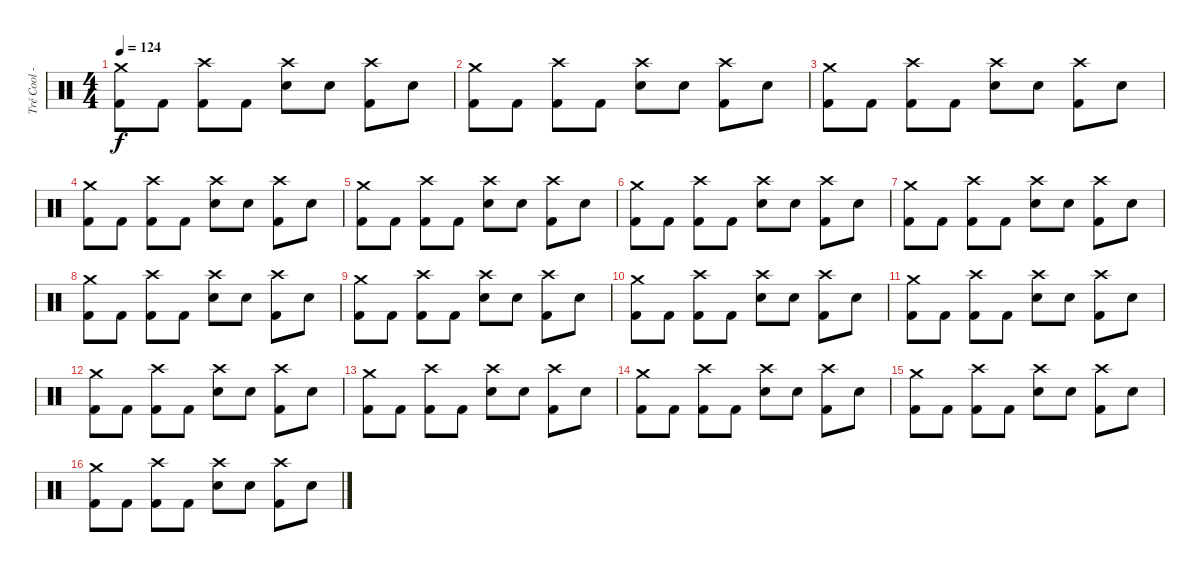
\track ("Tré Cool - Drums" "Tré Cool -") {instrument percussion}
\staff {score}
\articulation defaults
\ts (4 4)
\tempo 124
\clef neutral
\ks c
("Crash medium (hit)" "Kick (hit) 2").8{dy f} "Kick (hit) 2".8 ("Crash high (hit)" "Kick (hit) 2").8 "Kick (hit) 2".8 ("Crash high (hit)" "Electric Snare (hit)").8 "Electric Snare (hit)".8 ("Crash high (hit)" "Kick (hit) 2").8 "Electric Snare (hit)".8 |
("Crash medium (hit)" "Kick (hit) 2").8 "Kick (hit) 2".8 ("Crash high (hit)" "Kick (hit) 2").8 "Kick (hit) 2".8 ("Crash high (hit)" "Electric Snare (hit)").8 "Electric Snare (hit)".8 ("Crash high (hit)" "Kick (hit) 2").8 "Electric Snare (hit)".8 |
("Crash medium (hit)" "Kick (hit) 2").8 "Kick (hit) 2".8 ("Crash high (hit)" "Kick (hit) 2").8 "Kick (hit) 2".8 ("Crash high (hit)" "Electric Snare (hit)").8 "Electric Snare (hit)".8 ("Crash high (hit)" "Kick (hit) 2").8 "Electric Snare (hit)".8 |
("Crash medium (hit)" "Kick (hit) 2").8 "Kick (hit) 2".8 ("Crash high (hit)" "Kick (hit) 2").8 "Kick (hit) 2".8 ("Crash high (hit)" "Electric Snare (hit)").8 "Electric Snare (hit)".8 ("Crash high (hit)" "Kick (hit) 2").8 "Electric Snare (hit)".8 |
("Crash medium (hit)" "Kick (hit) 2").8 "Kick (hit) 2".8 ("Crash high (hit)" "Kick (hit) 2").8 "Kick (hit) 2".8 ("Crash high (hit)" "Electric Snare (hit)").8 "Electric Snare (hit)".8 ("Crash high (hit)" "Kick (hit) 2").8 "Electric Snare (hit)".8 |
("Crash medium (hit)" "Kick (hit) 2").8 "Kick (hit) 2".8 ("Crash high (hit)" "Kick (hit) 2").8 "Kick (hit) 2".8 ("Crash high (hit)" "Electric Snare (hit)").8 "Electric Snare (hit)".8 ("Crash high (hit)" "Kick (hit) 2").8 "Electric Snare (hit)".8 |
("Crash medium (hit)" "Kick (hit) 2").8 "Kick (hit) 2".8 ("Crash high (hit)" "Kick (hit) 2").8 "Kick (hit) 2".8 ("Crash high (hit)" "Electric Snare (hit)").8 "Electric Snare (hit)".8 ("Crash high (hit)" "Kick (hit) 2").8 "Electric Snare (hit)".8 |
("Crash medium (hit)" "Kick (hit) 2").8 "Kick (hit) 2".8 ("Crash high (hit)" "Kick (hit) 2").8 "Kick (hit) 2".8 ("Crash high (hit)" "Electric Snare (hit)").8 "Electric Snare (hit)".8 ("Crash high (hit)" "Kick (hit) 2").8 "Electric Snare (hit)".8 |
("Crash medium (hit)" "Kick (hit) 2").8 "Kick (hit) 2".8 ("Crash high (hit)" "Kick (hit) 2").8 "Kick (hit) 2".8 ("Crash high (hit)" "Electric Snare (hit)").8 "Electric Snare (hit)".8 ("Crash high (hit)" "Kick (hit) 2").8 "Electric Snare (hit)".8 |
("Crash medium (hit)" "Kick (hit) 2").8 "Kick (hit) 2".8 ("Crash high (hit)" "Kick (hit) 2").8 "Kick (hit) 2".8 ("Crash high (hit)" "Electric Snare (hit)").8 "Electric Snare (hit)".8 ("Crash high (hit)" "Kick (hit) 2").8 "Electric Snare (hit)".8 |
("Crash medium (hit)" "Kick (hit) 2").8 "Kick (hit) 2".8 ("Crash high (hit)" "Kick (hit) 2").8 "Kick (hit) 2".8 ("Crash high (hit)" "Electric Snare (hit)").8 "Electric Snare (hit)".8 ("Crash high (hit)" "Kick (hit) 2").8 "Electric Snare (hit)".8 |
("Crash medium (hit)" "Kick (hit) 2").8 "Kick (hit) 2".8 ("Crash high (hit)" "Kick (hit) 2").8 "Kick (hit) 2".8 ("Crash high (hit)" "Electric Snare (hit)").8 "Electric Snare (hit)".8 ("Crash high (hit)" "Kick (hit) 2").8 "Electric Snare (hit)".8 |
("Crash medium (hit)" "Kick (hit) 2").8 "Kick (hit) 2".8 ("Crash high (hit)" "Kick (hit) 2").8 "Kick (hit) 2".8 ("Crash high (hit)" "Electric Snare (hit)").8 "Electric Snare (hit)".8 ("Crash high (hit)" "Kick (hit) 2").8 "Electric Snare (hit)".8 |
("Crash medium (hit)" "Kick (hit) 2").8 "Kick (hit) 2".8 ("Crash high (hit)" "Kick (hit) 2").8 "Kick (hit) 2".8 ("Crash high (hit)" "Electric Snare (hit)").8 "Electric Snare (hit)".8 ("Crash high (hit)" "Kick (hit) 2").8 "Electric Snare (hit)".8 |
("Crash medium (hit)" "Kick (hit) 2").8 "Kick (hit) 2".8 ("Crash high (hit)" "Kick (hit) 2").8 "Kick (hit) 2".8 ("Crash high (hit)" "Electric Snare (hit)").8 "Electric Snare (hit)".8 ("Crash high (hit)" "Kick (hit) 2").8 "Electric Snare (hit)".8 |
("Crash medium (hit)" "Kick (hit) 2").8 "Kick (hit) 2".8 ("Crash high (hit)" "Kick (hit) 2").8 "Kick (hit) 2".8 ("Crash high (hit)" "Electric Snare (hit)").8 "Electric Snare (hit)".8 ("Crash high (hit)" "Kick (hit) 2").8 "Electric Snare (hit)".8
